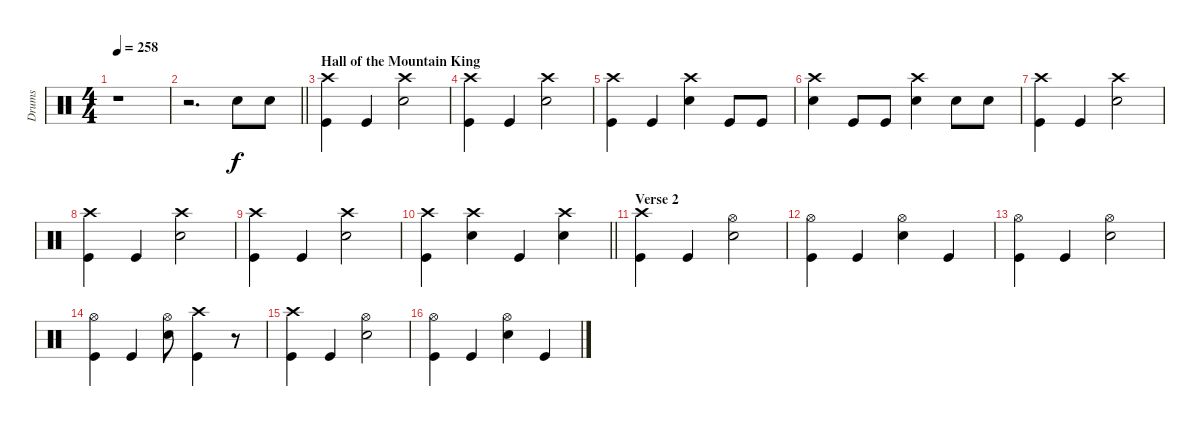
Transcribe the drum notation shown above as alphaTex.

\track ("Drums" "Drums") {instrument percussion}
\staff {score}
\articulation defaults
\ts (4 4)
\tempo 258
\clef neutral
\ks c
r.1{dy f} |
\barLineRight lightlight
r.2{d} "Electric Snare (hit)".8 "Electric Snare (hit)".8 |
\section ("" "Hall of the Mountain King")
("Crash high (hit)" "Kick (hit)").4 "Kick (hit)".4 ("Crash high (hit)" "Electric Snare (hit)").2 |
("Crash high (hit)" "Kick (hit)").4 "Kick (hit)".4 ("Crash high (hit)" "Electric Snare (hit)").2 |
("Crash high (hit)" "Kick (hit)").4 "Kick (hit)".4 ("Crash high (hit)" "Electric Snare (hit)").4 "Kick (hit)".8 "Kick (hit)".8 |
("Crash high (hit)" "Electric Snare (hit)").4 "Kick (hit)".8 "Kick (hit)".8 ("Crash high (hit)" "Electric Snare (hit)").4 "Electric Snare (hit)".8 "Electric Snare (hit)".8 |
("Crash high (hit)" "Kick (hit)").4 "Kick (hit)".4 ("Crash high (hit)" "Electric Snare (hit)").2 |
("Crash high (hit)" "Kick (hit)").4 "Kick (hit)".4 ("Crash high (hit)" "Electric Snare (hit)").2 |
("Crash high (hit)" "Kick (hit)").4 "Kick (hit)".4 ("Crash high (hit)" "Electric Snare (hit)").2 |
\barLineRight lightlight
("Crash high (hit)" "Kick (hit)").4 ("Crash high (hit)" "Electric Snare (hit)").4 "Kick (hit)".4 ("Crash high (hit)" "Electric Snare (hit)").4 |
\section ("" "Verse 2")
("Crash high (hit)" "Kick (hit)").4 "Kick (hit)".4 ("Hi-Hat (open)" "Electric Snare (hit)").2 |
("Hi-Hat (open)" "Kick (hit)").4 "Kick (hit)".4 ("Hi-Hat (open)" "Electric Snare (hit)").4 "Kick (hit)".4 |
("Hi-Hat (open)" "Kick (hit)").4 "Kick (hit)".4 ("Hi-Hat (open)" "Electric Snare (hit)").2 |
("Hi-Hat (open)" "Kick (hit)").4 "Kick (hit)".4 ("Hi-Hat (open)" "Electric Snare (hit)").8 ("Crash high (hit)" "Kick (hit)").4 r.8 |
("Crash high (hit)" "Kick (hit)").4 "Kick (hit)".4 ("Hi-Hat (open)" "Electric Snare (hit)").2 |
("Hi-Hat (open)" "Kick (hit)").4 "Kick (hit)".4 ("Hi-Hat (open)" "Electric Snare (hit)").4 "Kick (hit)".4
